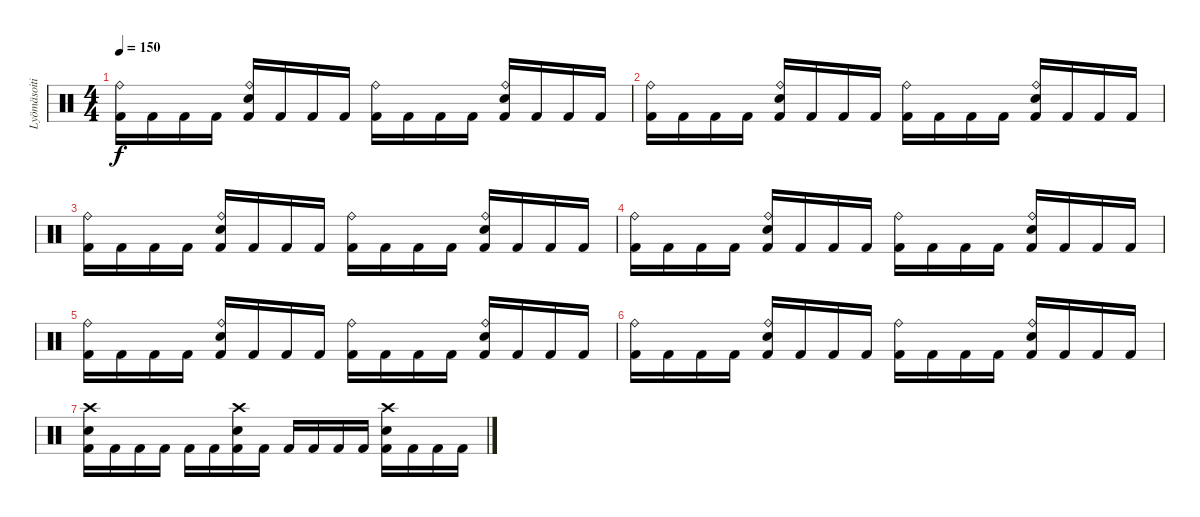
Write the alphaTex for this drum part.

\track ("Lyömäsoitin" "Lyömäsoiti") {instrument percussion}
\staff {score}
\articulation defaults
\ts (4 4)
\tempo 150
\clef neutral
\ks c
("Kick (hit) 2" "Ride (bell)").16{dy f volume 1} "Kick (hit) 2".16 "Kick (hit) 2".16 "Kick (hit) 2".16 ("Kick (hit) 2" "Ride (bell)" "Electric Snare (hit)").16 "Kick (hit) 2".16 "Kick (hit) 2".16 "Kick (hit) 2".16 ("Kick (hit) 2" "Ride (bell)").16 "Kick (hit) 2".16 "Kick (hit) 2".16 "Kick (hit) 2".16 ("Kick (hit) 2" "Ride (bell)" "Electric Snare (hit)").16 "Kick (hit) 2".16 "Kick (hit) 2".16 "Kick (hit) 2".16 |
("Kick (hit) 2" "Ride (bell)").16{volume 0} "Kick (hit) 2".16 "Kick (hit) 2".16 "Kick (hit) 2".16 ("Kick (hit) 2" "Electric Snare (hit)" "Ride (bell)").16 "Kick (hit) 2".16 "Kick (hit) 2".16 "Kick (hit) 2".16 ("Kick (hit) 2" "Ride (bell)").16 "Kick (hit) 2".16 "Kick (hit) 2".16 "Kick (hit) 2".16 ("Kick (hit) 2" "Ride (bell)" "Electric Snare (hit)").16 "Kick (hit) 2".16 "Kick (hit) 2".16 "Kick (hit) 2".16 |
("Kick (hit) 2" "Ride (bell)").16 "Kick (hit) 2".16 "Kick (hit) 2".16 "Kick (hit) 2".16 ("Kick (hit) 2" "Electric Snare (hit)" "Ride (bell)").16 "Kick (hit) 2".16 "Kick (hit) 2".16 "Kick (hit) 2".16 ("Kick (hit) 2" "Ride (bell)").16 "Kick (hit) 2".16 "Kick (hit) 2".16 "Kick (hit) 2".16 ("Kick (hit) 2" "Ride (bell)" "Electric Snare (hit)").16 "Kick (hit) 2".16 "Kick (hit) 2".16 "Kick (hit) 2".16 |
("Kick (hit) 2" "Ride (bell)").16 "Kick (hit) 2".16 "Kick (hit) 2".16 "Kick (hit) 2".16 ("Kick (hit) 2" "Electric Snare (hit)" "Ride (bell)").16 "Kick (hit) 2".16 "Kick (hit) 2".16 "Kick (hit) 2".16 ("Kick (hit) 2" "Ride (bell)").16 "Kick (hit) 2".16 "Kick (hit) 2".16 "Kick (hit) 2".16 ("Kick (hit) 2" "Ride (bell)" "Electric Snare (hit)").16 "Kick (hit) 2".16 "Kick (hit) 2".16 "Kick (hit) 2".16 |
("Kick (hit) 2" "Ride (bell)").16 "Kick (hit) 2".16 "Kick (hit) 2".16 "Kick (hit) 2".16 ("Kick (hit) 2" "Ride (bell)" "Electric Snare (hit)").16 "Kick (hit) 2".16 "Kick (hit) 2".16 "Kick (hit) 2".16 ("Kick (hit) 2" "Ride (bell)").16 "Kick (hit) 2".16 "Kick (hit) 2".16 "Kick (hit) 2".16 ("Kick (hit) 2" "Ride (bell)" "Electric Snare (hit)").16 "Kick (hit) 2".16 "Kick (hit) 2".16 "Kick (hit) 2".16 |
("Kick (hit) 2" "Ride (bell)").16 "Kick (hit) 2".16 "Kick (hit) 2".16 "Kick (hit) 2".16 ("Kick (hit) 2" "Electric Snare (hit)" "Ride (bell)").16 "Kick (hit) 2".16 "Kick (hit) 2".16 "Kick (hit) 2".16 ("Kick (hit) 2" "Ride (bell)").16 "Kick (hit) 2".16 "Kick (hit) 2".16 "Kick (hit) 2".16 ("Kick (hit) 2" "Ride (bell)" "Electric Snare (hit)").16 "Kick (hit) 2".16 "Kick (hit) 2".16 "Kick (hit) 2".16 |
("Kick (hit) 2" "Crash high (hit)" "Electric Snare (hit)").16 "Kick (hit) 2".16 "Kick (hit) 2".16 "Kick (hit) 2".16 "Kick (hit) 2".16 "Kick (hit) 2".16 ("Kick (hit) 2" "Crash high (hit)" "Electric Snare (hit)").16 "Kick (hit) 2".16 "Kick (hit) 2".16 "Kick (hit) 2".16 "Kick (hit) 2".16 "Kick (hit) 2".16 ("Kick (hit) 2" "Crash high (hit)" "Electric Snare (hit)").16 "Kick (hit) 2".16 "Kick (hit) 2".16 "Kick (hit) 2".16
